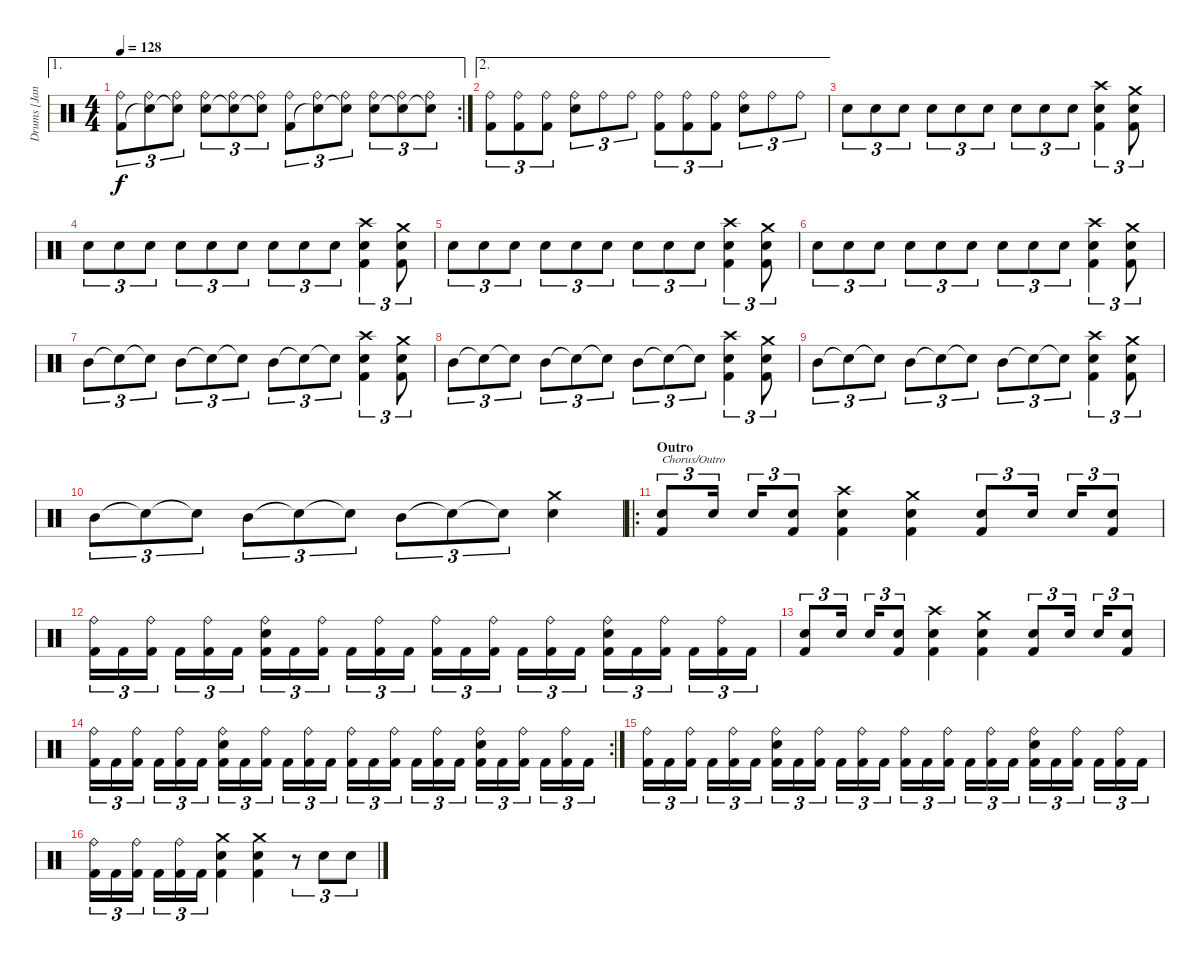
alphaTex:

\track ("Drums [Janne Saarenpaa]" "Drums [Jan") {instrument percussion}
\staff {score}
\articulation defaults
\ae 1
\rc 2
\ts (4 4)
\tempo 128
\clef neutral
\ks c
("Ride (bell)" "Kick (hit) 2").8{tu (3 2) dy f} ("Ride (bell)" "Snare (hit)"{t}).8{tu (3 2)} ("Ride (bell)" "Snare (hit)"{t}).8{tu (3 2)} ("Ride (bell)" "Electric Snare (hit)").8{tu (3 2)} ("Ride (bell)" "Snare (hit)"{t}).8{tu (3 2)} ("Ride (bell)" "Snare (hit)"{t}).8{tu (3 2)} ("Ride (bell)" "Kick (hit) 2").8{tu (3 2)} ("Ride (bell)" "Snare (hit)"{t}).8{tu (3 2)} ("Ride (bell)" "Snare (hit)"{t}).8{tu (3 2)} ("Ride (bell)" "Electric Snare (hit)").8{tu (3 2)} ("Ride (bell)" "Snare (hit)"{t}).8{tu (3 2)} ("Ride (bell)" "Snare (hit)"{t}).8{tu (3 2)} |
\ae 2
("Ride (bell)" "Kick (hit) 2").8{tu (3 2)} ("Ride (bell)" "Kick (hit) 2").8{tu (3 2)} ("Ride (bell)" "Kick (hit) 2").8{tu (3 2)} ("Ride (bell)" "Electric Snare (hit)").8{tu (3 2)} "Ride (bell)".8{tu (3 2)} "Ride (bell)".8{tu (3 2)} ("Ride (bell)" "Kick (hit) 2").8{tu (3 2)} ("Ride (bell)" "Kick (hit) 2").8{tu (3 2)} ("Ride (bell)" "Kick (hit) 2").8{tu (3 2)} ("Ride (bell)" "Electric Snare (hit)").8{tu (3 2)} "Ride (bell)".8{tu (3 2)} "Ride (bell)".8{tu (3 2)} |
"Electric Snare (hit)".8{tu (3 2)} "Electric Snare (hit)".8{tu (3 2)} "Electric Snare (hit)".8{tu (3 2)} "Electric Snare (hit)".8{tu (3 2)} "Electric Snare (hit)".8{tu (3 2)} "Electric Snare (hit)".8{tu (3 2)} "Electric Snare (hit)".8{tu (3 2)} "Electric Snare (hit)".8{tu (3 2)} "Electric Snare (hit)".8{tu (3 2)} ("Crash high (hit)" "Electric Snare (hit)" "Kick (hit) 2").4{tu (3 2)} ("Crash medium (hit)" "Electric Snare (hit)" "Kick (hit) 2").8{tu (3 2)} |
"Electric Snare (hit)".8{tu (3 2)} "Electric Snare (hit)".8{tu (3 2)} "Electric Snare (hit)".8{tu (3 2)} "Electric Snare (hit)".8{tu (3 2)} "Electric Snare (hit)".8{tu (3 2)} "Electric Snare (hit)".8{tu (3 2)} "Electric Snare (hit)".8{tu (3 2)} "Electric Snare (hit)".8{tu (3 2)} "Electric Snare (hit)".8{tu (3 2)} ("Crash high (hit)" "Electric Snare (hit)" "Kick (hit) 2").4{tu (3 2)} ("Crash medium (hit)" "Electric Snare (hit)" "Kick (hit) 2").8{tu (3 2)} |
"Electric Snare (hit)".8{tu (3 2)} "Electric Snare (hit)".8{tu (3 2)} "Electric Snare (hit)".8{tu (3 2)} "Electric Snare (hit)".8{tu (3 2)} "Electric Snare (hit)".8{tu (3 2)} "Electric Snare (hit)".8{tu (3 2)} "Electric Snare (hit)".8{tu (3 2)} "Electric Snare (hit)".8{tu (3 2)} "Electric Snare (hit)".8{tu (3 2)} ("Crash high (hit)" "Electric Snare (hit)" "Kick (hit) 2").4{tu (3 2)} ("Crash medium (hit)" "Electric Snare (hit)" "Kick (hit) 2").8{tu (3 2)} |
"Electric Snare (hit)".8{tu (3 2)} "Electric Snare (hit)".8{tu (3 2)} "Electric Snare (hit)".8{tu (3 2)} "Electric Snare (hit)".8{tu (3 2)} "Electric Snare (hit)".8{tu (3 2)} "Electric Snare (hit)".8{tu (3 2)} "Electric Snare (hit)".8{tu (3 2)} "Electric Snare (hit)".8{tu (3 2)} "Electric Snare (hit)".8{tu (3 2)} ("Crash high (hit)" "Electric Snare (hit)" "Kick (hit) 2").4{tu (3 2)} ("Crash medium (hit)" "Electric Snare (hit)" "Kick (hit) 2").8{tu (3 2)} |
"Mid Tom (hit)".8{tu (3 2)} "Snare (hit)"{t}.8{tu (3 2)} "Snare (hit)"{t}.8{tu (3 2)} "Mid Tom (hit)".8{tu (3 2)} "Snare (hit)"{t}.8{tu (3 2)} "Snare (hit)"{t}.8{tu (3 2)} "Mid Tom (hit)".8{tu (3 2)} "Snare (hit)"{t}.8{tu (3 2)} "Snare (hit)"{t}.8{tu (3 2)} ("Crash high (hit)" "Electric Snare (hit)" "Kick (hit) 2").4{tu (3 2)} ("Crash medium (hit)" "Electric Snare (hit)" "Kick (hit) 2").8{tu (3 2)} |
"Mid Tom (hit)".8{tu (3 2)} "Snare (hit)"{t}.8{tu (3 2)} "Snare (hit)"{t}.8{tu (3 2)} "Mid Tom (hit)".8{tu (3 2)} "Snare (hit)"{t}.8{tu (3 2)} "Snare (hit)"{t}.8{tu (3 2)} "Mid Tom (hit)".8{tu (3 2)} "Snare (hit)"{t}.8{tu (3 2)} "Snare (hit)"{t}.8{tu (3 2)} ("Crash high (hit)" "Electric Snare (hit)" "Kick (hit) 2").4{tu (3 2)} ("Crash medium (hit)" "Electric Snare (hit)" "Kick (hit) 2").8{tu (3 2)} |
"Mid Tom (hit)".8{tu (3 2)} "Snare (hit)"{t}.8{tu (3 2)} "Snare (hit)"{t}.8{tu (3 2)} "Mid Tom (hit)".8{tu (3 2)} "Snare (hit)"{t}.8{tu (3 2)} "Snare (hit)"{t}.8{tu (3 2)} "Mid Tom (hit)".8{tu (3 2)} "Snare (hit)"{t}.8{tu (3 2)} "Snare (hit)"{t}.8{tu (3 2)} ("Crash high (hit)" "Electric Snare (hit)" "Kick (hit) 2").4{tu (3 2)} ("Crash medium (hit)" "Electric Snare (hit)" "Kick (hit) 2").8{tu (3 2)} |
"Mid Tom (hit)".8{tu (3 2)} "Snare (hit)"{t}.8{tu (3 2)} "Snare (hit)"{t}.8{tu (3 2)} "Mid Tom (hit)".8{tu (3 2)} "Snare (hit)"{t}.8{tu (3 2)} "Snare (hit)"{t}.8{tu (3 2)} "Mid Tom (hit)".8{tu (3 2)} "Snare (hit)"{t}.8{tu (3 2)} "Snare (hit)"{t}.8{tu (3 2)} ("Crash medium (hit)" "Electric Snare (hit)").4 |
\ro
\section ("" "Outro")
("Electric Snare (hit)" "Kick (hit) 2").8{tu (3 2) txt "Chorus/Outro"} "Electric Snare (hit)".16{tu (3 2)} "Electric Snare (hit)".16{tu (3 2)} ("Electric Snare (hit)" "Kick (hit) 2").8{tu (3 2)} ("Crash high (hit)" "Electric Snare (hit)" "Kick (hit) 2").4 ("Crash medium (hit)" "Electric Snare (hit)" "Kick (hit) 2").4 ("Electric Snare (hit)" "Kick (hit) 2").8{tu (3 2)} "Electric Snare (hit)".16{tu (3 2)} "Electric Snare (hit)".16{tu (3 2)} ("Electric Snare (hit)" "Kick (hit) 2").8{tu (3 2)} |
("Ride (bell)" "Kick (hit) 2").16{tu (3 2)} "Kick (hit) 2".16{tu (3 2)} ("Ride (bell)" "Kick (hit) 2").16{tu (3 2)} "Kick (hit) 2".16{tu (3 2)} ("Ride (bell)" "Kick (hit) 2").16{tu (3 2)} "Kick (hit) 2".16{tu (3 2)} ("Ride (bell)" "Electric Snare (hit)" "Kick (hit) 2").16{tu (3 2)} "Kick (hit) 2".16{tu (3 2)} ("Ride (bell)" "Kick (hit) 2").16{tu (3 2)} "Kick (hit) 2".16{tu (3 2)} ("Ride (bell)" "Kick (hit) 2").16{tu (3 2)} "Kick (hit) 2".16{tu (3 2)} ("Ride (bell)" "Kick (hit) 2").16{tu (3 2)} "Kick (hit) 2".16{tu (3 2)} ("Ride (bell)" "Kick (hit) 2").16{tu (3 2)} "Kick (hit) 2".16{tu (3 2)} ("Ride (bell)" "Kick (hit) 2").16{tu (3 2)} "Kick (hit) 2".16{tu (3 2)} ("Ride (bell)" "Electric Snare (hit)" "Kick (hit) 2").16{tu (3 2)} "Kick (hit) 2".16{tu (3 2)} ("Ride (bell)" "Kick (hit) 2").16{tu (3 2)} "Kick (hit) 2".16{tu (3 2)} ("Ride (bell)" "Kick (hit) 2").16{tu (3 2)} "Kick (hit) 2".16{tu (3 2)} |
("Electric Snare (hit)" "Kick (hit) 2").8{tu (3 2)} "Electric Snare (hit)".16{tu (3 2)} "Electric Snare (hit)".16{tu (3 2)} ("Electric Snare (hit)" "Kick (hit) 2").8{tu (3 2)} ("Crash high (hit)" "Electric Snare (hit)" "Kick (hit) 2").4 ("Crash medium (hit)" "Electric Snare (hit)" "Kick (hit) 2").4 ("Electric Snare (hit)" "Kick (hit) 2").8{tu (3 2)} "Electric Snare (hit)".16{tu (3 2)} "Electric Snare (hit)".16{tu (3 2)} ("Electric Snare (hit)" "Kick (hit) 2").8{tu (3 2)} |
\rc 2
("Ride (bell)" "Kick (hit) 2").16{tu (3 2)} "Kick (hit) 2".16{tu (3 2)} ("Ride (bell)" "Kick (hit) 2").16{tu (3 2)} "Kick (hit) 2".16{tu (3 2)} ("Ride (bell)" "Kick (hit) 2").16{tu (3 2)} "Kick (hit) 2".16{tu (3 2)} ("Ride (bell)" "Electric Snare (hit)" "Kick (hit) 2").16{tu (3 2)} "Kick (hit) 2".16{tu (3 2)} ("Ride (bell)" "Kick (hit) 2").16{tu (3 2)} "Kick (hit) 2".16{tu (3 2)} ("Ride (bell)" "Kick (hit) 2").16{tu (3 2)} "Kick (hit) 2".16{tu (3 2)} ("Ride (bell)" "Kick (hit) 2").16{tu (3 2)} "Kick (hit) 2".16{tu (3 2)} ("Ride (bell)" "Kick (hit) 2").16{tu (3 2)} "Kick (hit) 2".16{tu (3 2)} ("Ride (bell)" "Kick (hit) 2").16{tu (3 2)} "Kick (hit) 2".16{tu (3 2)} ("Ride (bell)" "Electric Snare (hit)" "Kick (hit) 2").16{tu (3 2)} "Kick (hit) 2".16{tu (3 2)} ("Ride (bell)" "Kick (hit) 2").16{tu (3 2)} "Kick (hit) 2".16{tu (3 2)} ("Ride (bell)" "Kick (hit) 2").16{tu (3 2)} "Kick (hit) 2".16{tu (3 2)} |
("Ride (bell)" "Kick (hit) 2").16{tu (3 2)} "Kick (hit) 2".16{tu (3 2)} ("Ride (bell)" "Kick (hit) 2").16{tu (3 2)} "Kick (hit) 2".16{tu (3 2)} ("Ride (bell)" "Kick (hit) 2").16{tu (3 2)} "Kick (hit) 2".16{tu (3 2)} ("Ride (bell)" "Electric Snare (hit)" "Kick (hit) 2").16{tu (3 2)} "Kick (hit) 2".16{tu (3 2)} ("Ride (bell)" "Kick (hit) 2").16{tu (3 2)} "Kick (hit) 2".16{tu (3 2)} ("Ride (bell)" "Kick (hit) 2").16{tu (3 2)} "Kick (hit) 2".16{tu (3 2)} ("Ride (bell)" "Kick (hit) 2").16{tu (3 2)} "Kick (hit) 2".16{tu (3 2)} ("Ride (bell)" "Kick (hit) 2").16{tu (3 2)} "Kick (hit) 2".16{tu (3 2)} ("Ride (bell)" "Kick (hit) 2").16{tu (3 2)} "Kick (hit) 2".16{tu (3 2)} ("Ride (bell)" "Electric Snare (hit)" "Kick (hit) 2").16{tu (3 2)} "Kick (hit) 2".16{tu (3 2)} ("Ride (bell)" "Kick (hit) 2").16{tu (3 2)} "Kick (hit) 2".16{tu (3 2)} ("Ride (bell)" "Kick (hit) 2").16{tu (3 2)} "Kick (hit) 2".16{tu (3 2)} |
("Ride (bell)" "Kick (hit) 2").16{tu (3 2)} "Kick (hit) 2".16{tu (3 2)} ("Ride (bell)" "Kick (hit) 2").16{tu (3 2)} "Kick (hit) 2".16{tu (3 2)} ("Ride (bell)" "Kick (hit) 2").16{tu (3 2)} "Kick (hit) 2".16{tu (3 2)} ("Crash medium (hit)" "Electric Snare (hit)" "Kick (hit) 2").4 ("Crash medium (hit)" "Electric Snare (hit)" "Kick (hit) 2").4 r.8{tu (3 2)} "Electric Snare (hit)".8{tu (3 2)} "Electric Snare (hit)".8{tu (3 2)}
